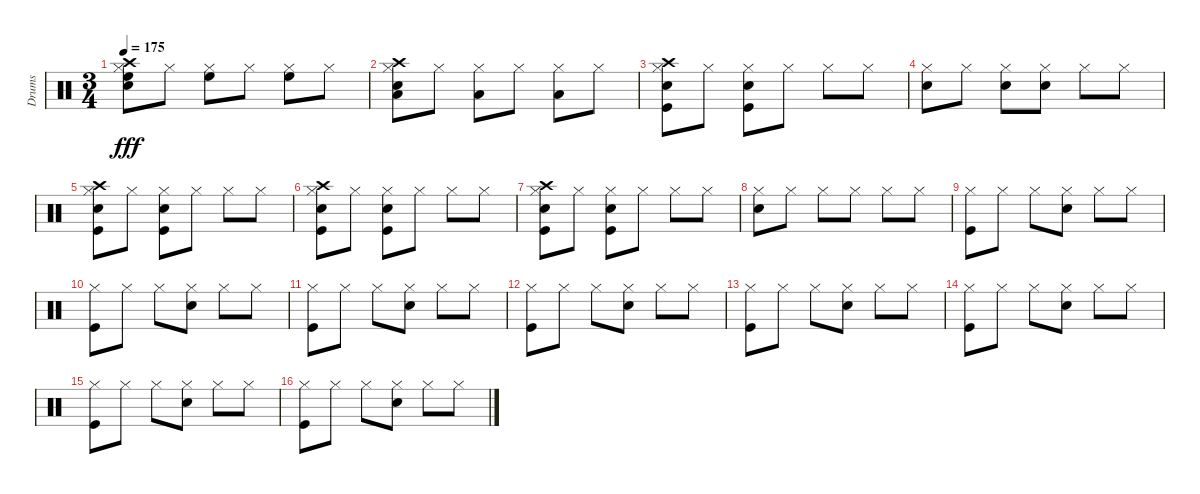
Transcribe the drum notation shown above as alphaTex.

\track ("Drums" "Drums") {instrument percussion}
\staff {score}
\articulation defaults
\ts (3 4)
\tempo 175
\clef neutral
\ks c
("High Floor Tom (hit)" "Crash high (hit)" "Snare (hit) 2" "Hi-Hat (closed)").8{dy fff} "Hi-Hat (closed)".8 ("High Floor Tom (hit)" "Hi-Hat (closed)").8 "Hi-Hat (closed)".8 ("High Floor Tom (hit)" "Hi-Hat (closed)").8 "Hi-Hat (closed)".8 |
("Low Tom (hit)" "Crash high (hit)" "Snare (hit) 2" "Hi-Hat (closed)").8 "Hi-Hat (closed)".8 ("Low Tom (hit)" "Hi-Hat (closed)").8 "Hi-Hat (closed)".8 ("Low Tom (hit)" "Hi-Hat (closed)").8 "Hi-Hat (closed)".8 |
("Hi-Hat (closed)" "Kick (hit)" "Snare (hit) 2" "Crash high (hit)").8 "Hi-Hat (closed)".8 ("Hi-Hat (closed)" "Kick (hit)" "Snare (hit) 2").8 "Hi-Hat (closed)".8 "Hi-Hat (closed)".8 "Hi-Hat (closed)".8 |
("Hi-Hat (closed)" "Snare (hit) 2").8 "Hi-Hat (closed)".8 ("Hi-Hat (closed)" "Snare (hit) 2").8 ("Hi-Hat (closed)" "Snare (hit) 2").8 "Hi-Hat (closed)".8 "Hi-Hat (closed)".8 |
("Hi-Hat (closed)" "Kick (hit)" "Snare (hit) 2" "Crash high (hit)").8 "Hi-Hat (closed)".8 ("Hi-Hat (closed)" "Kick (hit)" "Snare (hit) 2").8 "Hi-Hat (closed)".8 "Hi-Hat (closed)".8 "Hi-Hat (closed)".8 |
("Hi-Hat (closed)" "Kick (hit)" "Snare (hit) 2" "Crash high (hit)").8 "Hi-Hat (closed)".8 ("Hi-Hat (closed)" "Kick (hit)" "Snare (hit) 2").8 "Hi-Hat (closed)".8 "Hi-Hat (closed)".8 "Hi-Hat (closed)".8 |
("Hi-Hat (closed)" "Kick (hit)" "Snare (hit) 2" "Crash high (hit)").8 "Hi-Hat (closed)".8 ("Hi-Hat (closed)" "Kick (hit)" "Snare (hit) 2").8 "Hi-Hat (closed)".8 "Hi-Hat (closed)".8 "Hi-Hat (closed)".8 |
("Hi-Hat (closed)" "Snare (hit) 2").8 "Hi-Hat (closed)".8 "Hi-Hat (closed)".8 "Hi-Hat (closed)".8 "Hi-Hat (closed)".8 "Hi-Hat (closed)".8 |
("Hi-Hat (closed)" "Kick (hit)").8 "Hi-Hat (closed)".8 "Hi-Hat (closed)".8 ("Hi-Hat (closed)" "Snare (hit) 2").8 "Hi-Hat (closed)".8 "Hi-Hat (closed)".8 |
("Hi-Hat (closed)" "Kick (hit)").8 "Hi-Hat (closed)".8 "Hi-Hat (closed)".8 ("Hi-Hat (closed)" "Snare (hit) 2").8 "Hi-Hat (closed)".8 "Hi-Hat (closed)".8 |
("Hi-Hat (closed)" "Kick (hit)").8 "Hi-Hat (closed)".8 "Hi-Hat (closed)".8 ("Hi-Hat (closed)" "Snare (hit) 2").8 "Hi-Hat (closed)".8 "Hi-Hat (closed)".8 |
("Hi-Hat (closed)" "Kick (hit)").8 "Hi-Hat (closed)".8 "Hi-Hat (closed)".8 ("Hi-Hat (closed)" "Snare (hit) 2").8 "Hi-Hat (closed)".8 "Hi-Hat (closed)".8 |
("Hi-Hat (closed)" "Kick (hit)").8 "Hi-Hat (closed)".8 "Hi-Hat (closed)".8 ("Hi-Hat (closed)" "Snare (hit) 2").8 "Hi-Hat (closed)".8 "Hi-Hat (closed)".8 |
("Hi-Hat (closed)" "Kick (hit)").8 "Hi-Hat (closed)".8 "Hi-Hat (closed)".8 ("Hi-Hat (closed)" "Snare (hit) 2").8 "Hi-Hat (closed)".8 "Hi-Hat (closed)".8 |
("Hi-Hat (closed)" "Kick (hit)").8 "Hi-Hat (closed)".8 "Hi-Hat (closed)".8 ("Hi-Hat (closed)" "Snare (hit) 2").8 "Hi-Hat (closed)".8 "Hi-Hat (closed)".8 |
("Hi-Hat (closed)" "Kick (hit)").8 "Hi-Hat (closed)".8 "Hi-Hat (closed)".8 ("Hi-Hat (closed)" "Snare (hit) 2").8 "Hi-Hat (closed)".8 "Hi-Hat (closed)".8
